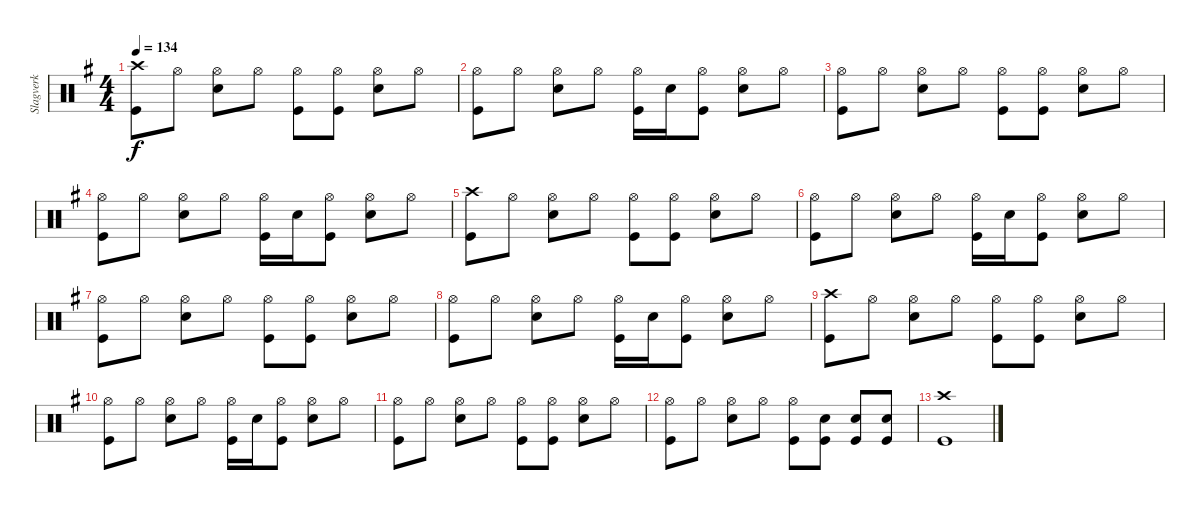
\track ("Slagverk" "Slagverk") {instrument percussion}
\staff {score}
\articulation defaults
\ts (4 4)
\tempo 134
\clef neutral
\ks g
("Crash high (hit)" "Kick (hit)").8{dy f} "Hi-Hat (open)".8 ("Hi-Hat (open)" "Electric Snare (hit)").8 "Hi-Hat (open)".8 ("Hi-Hat (open)" "Kick (hit)").8 ("Hi-Hat (open)" "Kick (hit)").8 ("Hi-Hat (open)" "Electric Snare (hit)").8 "Hi-Hat (open)".8 |
("Hi-Hat (open)" "Kick (hit)").8 "Hi-Hat (open)".8 ("Hi-Hat (open)" "Electric Snare (hit)").8 "Hi-Hat (open)".8 ("Hi-Hat (open)" "Kick (hit)").16 "Electric Snare (hit)".16 ("Hi-Hat (open)" "Kick (hit)").8 ("Hi-Hat (open)" "Electric Snare (hit)").8 "Hi-Hat (open)".8 |
("Hi-Hat (open)" "Kick (hit)").8 "Hi-Hat (open)".8 ("Hi-Hat (open)" "Electric Snare (hit)").8 "Hi-Hat (open)".8 ("Hi-Hat (open)" "Kick (hit)").8 ("Hi-Hat (open)" "Kick (hit)").8 ("Hi-Hat (open)" "Electric Snare (hit)").8 "Hi-Hat (open)".8 |
("Hi-Hat (open)" "Kick (hit)").8 "Hi-Hat (open)".8 ("Hi-Hat (open)" "Electric Snare (hit)").8 "Hi-Hat (open)".8 ("Hi-Hat (open)" "Kick (hit)").16 "Electric Snare (hit)".16 ("Hi-Hat (open)" "Kick (hit)").8 ("Hi-Hat (open)" "Electric Snare (hit)").8 "Hi-Hat (open)".8 |
("Crash high (hit)" "Kick (hit)").8 "Hi-Hat (open)".8 ("Hi-Hat (open)" "Electric Snare (hit)").8 "Hi-Hat (open)".8 ("Hi-Hat (open)" "Kick (hit)").8 ("Hi-Hat (open)" "Kick (hit)").8 ("Hi-Hat (open)" "Electric Snare (hit)").8 "Hi-Hat (open)".8 |
("Hi-Hat (open)" "Kick (hit)").8 "Hi-Hat (open)".8 ("Hi-Hat (open)" "Electric Snare (hit)").8 "Hi-Hat (open)".8 ("Hi-Hat (open)" "Kick (hit)").16 "Electric Snare (hit)".16 ("Hi-Hat (open)" "Kick (hit)").8 ("Hi-Hat (open)" "Electric Snare (hit)").8 "Hi-Hat (open)".8 |
("Hi-Hat (open)" "Kick (hit)").8 "Hi-Hat (open)".8 ("Hi-Hat (open)" "Electric Snare (hit)").8 "Hi-Hat (open)".8 ("Hi-Hat (open)" "Kick (hit)").8 ("Hi-Hat (open)" "Kick (hit)").8 ("Hi-Hat (open)" "Electric Snare (hit)").8 "Hi-Hat (open)".8 |
("Hi-Hat (open)" "Kick (hit)").8 "Hi-Hat (open)".8 ("Hi-Hat (open)" "Electric Snare (hit)").8 "Hi-Hat (open)".8 ("Hi-Hat (open)" "Kick (hit)").16 "Electric Snare (hit)".16 ("Hi-Hat (open)" "Kick (hit)").8 ("Hi-Hat (open)" "Electric Snare (hit)").8 "Hi-Hat (open)".8 |
("Crash high (hit)" "Kick (hit)").8 "Hi-Hat (open)".8 ("Hi-Hat (open)" "Electric Snare (hit)").8 "Hi-Hat (open)".8 ("Hi-Hat (open)" "Kick (hit)").8 ("Hi-Hat (open)" "Kick (hit)").8 ("Hi-Hat (open)" "Electric Snare (hit)").8 "Hi-Hat (open)".8 |
("Hi-Hat (open)" "Kick (hit)").8 "Hi-Hat (open)".8 ("Hi-Hat (open)" "Electric Snare (hit)").8 "Hi-Hat (open)".8 ("Hi-Hat (open)" "Kick (hit)").16 "Electric Snare (hit)".16 ("Hi-Hat (open)" "Kick (hit)").8 ("Hi-Hat (open)" "Electric Snare (hit)").8 "Hi-Hat (open)".8 |
("Hi-Hat (open)" "Kick (hit)").8 "Hi-Hat (open)".8 ("Hi-Hat (open)" "Electric Snare (hit)").8 "Hi-Hat (open)".8 ("Hi-Hat (open)" "Kick (hit)").8 ("Hi-Hat (open)" "Kick (hit)").8 ("Hi-Hat (open)" "Electric Snare (hit)").8 "Hi-Hat (open)".8 |
("Hi-Hat (open)" "Kick (hit)").8 "Hi-Hat (open)".8 ("Hi-Hat (open)" "Electric Snare (hit)").8 "Hi-Hat (open)".8 ("Hi-Hat (open)" "Kick (hit)").8 ("Electric Snare (hit)" "Kick (hit)").8 ("Electric Snare (hit)" "Kick (hit)").8 ("Electric Snare (hit)" "Kick (hit)").8 |
("Crash high (hit)" "Kick (hit)").1
